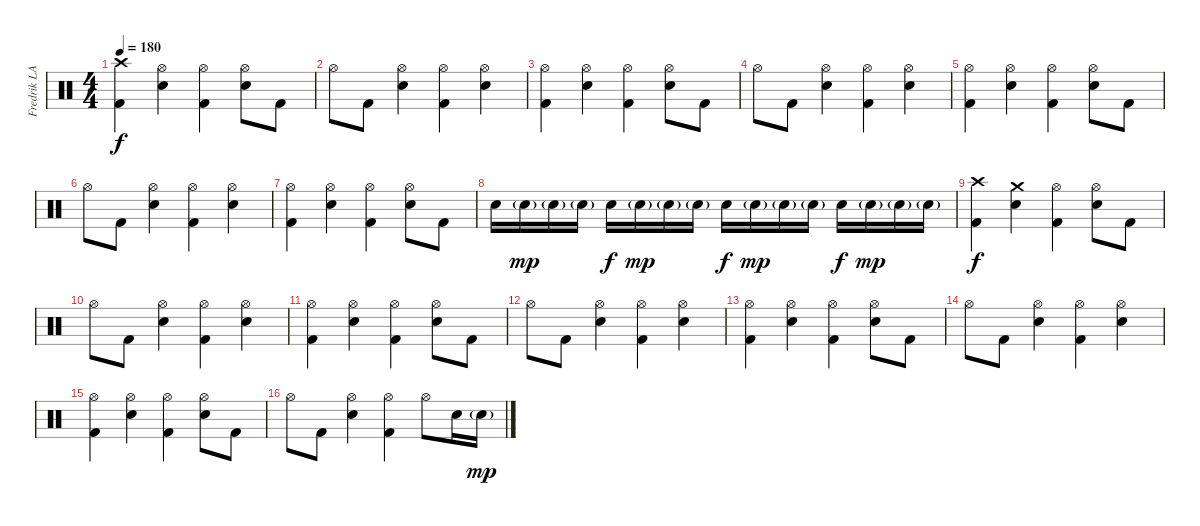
\track ("Fredrik LARZON" "Fredrik LA") {instrument percussion}
\staff {score}
\articulation defaults
\ts (4 4)
\tempo 180
\clef neutral
\ks c
("Crash high (hit)" "Kick (hit) 2").4{dy f} ("Hi-Hat (open)" "Electric Snare (hit)").4 ("Hi-Hat (open)" "Kick (hit) 2").4 ("Hi-Hat (open)" "Electric Snare (hit)").8 "Kick (hit) 2".8 |
"Hi-Hat (open)".8 "Kick (hit) 2".8 ("Hi-Hat (open)" "Electric Snare (hit)").4 ("Hi-Hat (open)" "Kick (hit) 2").4 ("Hi-Hat (open)" "Electric Snare (hit)").4 |
("Hi-Hat (open)" "Kick (hit) 2").4 ("Hi-Hat (open)" "Electric Snare (hit)").4 ("Hi-Hat (open)" "Kick (hit) 2").4 ("Hi-Hat (open)" "Electric Snare (hit)").8 "Kick (hit) 2".8 |
"Hi-Hat (open)".8 "Kick (hit) 2".8 ("Hi-Hat (open)" "Electric Snare (hit)").4 ("Hi-Hat (open)" "Kick (hit) 2").4 ("Hi-Hat (open)" "Electric Snare (hit)").4 |
("Hi-Hat (open)" "Kick (hit) 2").4 ("Hi-Hat (open)" "Electric Snare (hit)").4 ("Hi-Hat (open)" "Kick (hit) 2").4 ("Hi-Hat (open)" "Electric Snare (hit)").8 "Kick (hit) 2".8 |
"Hi-Hat (open)".8 "Kick (hit) 2".8 ("Hi-Hat (open)" "Electric Snare (hit)").4 ("Hi-Hat (open)" "Kick (hit) 2").4 ("Hi-Hat (open)" "Electric Snare (hit)").4 |
("Hi-Hat (open)" "Kick (hit) 2").4 ("Hi-Hat (open)" "Electric Snare (hit)").4 ("Hi-Hat (open)" "Kick (hit) 2").4 ("Hi-Hat (open)" "Electric Snare (hit)").8 "Kick (hit) 2".8 |
"Electric Snare (hit)".16 "Electric Snare (hit)"{g}.16{dy mp} "Electric Snare (hit)"{g}.16 "Electric Snare (hit)"{g}.16 "Electric Snare (hit)".16{dy f} "Electric Snare (hit)"{g}.16{dy mp} "Electric Snare (hit)"{g}.16 "Electric Snare (hit)"{g}.16 "Electric Snare (hit)".16{dy f} "Electric Snare (hit)"{g}.16{dy mp} "Electric Snare (hit)"{g}.16 "Electric Snare (hit)"{g}.16 "Electric Snare (hit)".16{dy f} "Electric Snare (hit)"{g}.16{dy mp} "Electric Snare (hit)"{g}.16 "Electric Snare (hit)"{g}.16 |
("Crash high (hit)" "Kick (hit) 2").4{dy f} ("Crash medium (hit)" "Electric Snare (hit)").4 ("Hi-Hat (open)" "Kick (hit) 2").4 ("Hi-Hat (open)" "Electric Snare (hit)").8 "Kick (hit) 2".8 |
"Hi-Hat (open)".8 "Kick (hit) 2".8 ("Hi-Hat (open)" "Electric Snare (hit)").4 ("Hi-Hat (open)" "Kick (hit) 2").4 ("Hi-Hat (open)" "Electric Snare (hit)").4 |
("Hi-Hat (open)" "Kick (hit) 2").4 ("Hi-Hat (open)" "Electric Snare (hit)").4 ("Hi-Hat (open)" "Kick (hit) 2").4 ("Hi-Hat (open)" "Electric Snare (hit)").8 "Kick (hit) 2".8 |
"Hi-Hat (open)".8 "Kick (hit) 2".8 ("Hi-Hat (open)" "Electric Snare (hit)").4 ("Hi-Hat (open)" "Kick (hit) 2").4 ("Hi-Hat (open)" "Electric Snare (hit)").4 |
("Hi-Hat (open)" "Kick (hit) 2").4 ("Hi-Hat (open)" "Electric Snare (hit)").4 ("Hi-Hat (open)" "Kick (hit) 2").4 ("Hi-Hat (open)" "Electric Snare (hit)").8 "Kick (hit) 2".8 |
"Hi-Hat (open)".8 "Kick (hit) 2".8 ("Hi-Hat (open)" "Electric Snare (hit)").4 ("Hi-Hat (open)" "Kick (hit) 2").4 ("Hi-Hat (open)" "Electric Snare (hit)").4 |
("Hi-Hat (open)" "Kick (hit) 2").4 ("Hi-Hat (open)" "Electric Snare (hit)").4 ("Hi-Hat (open)" "Kick (hit) 2").4 ("Hi-Hat (open)" "Electric Snare (hit)").8 "Kick (hit) 2".8 |
"Hi-Hat (open)".8 "Kick (hit) 2".8 ("Hi-Hat (open)" "Electric Snare (hit)").4 ("Hi-Hat (open)" "Kick (hit) 2").4 "Hi-Hat (open)".8 "Electric Snare (hit)".16 "Electric Snare (hit)"{g}.16{dy mp}
